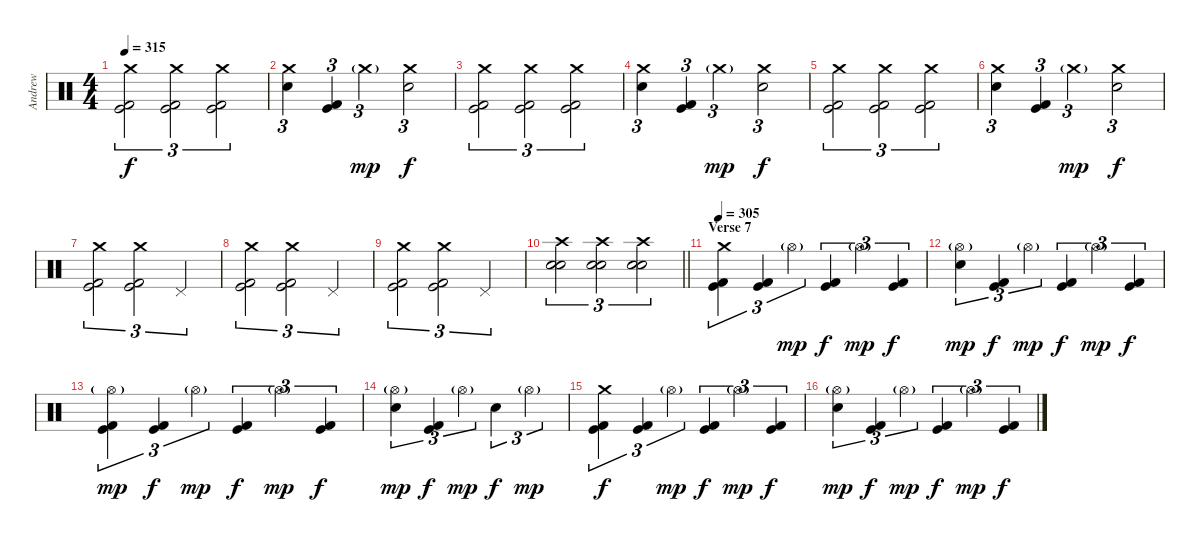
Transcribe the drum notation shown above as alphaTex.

\track ("Andrew" "Andrew") {instrument percussion}
\staff {score}
\articulation defaults
\ts (4 4)
\tempo 315
\clef neutral
\ks c
("Crash medium (hit)" "Kick (hit)" "Kick (hit) 2").2{tu (3 2) dy f} ("Crash medium (hit)" "Kick (hit)" "Kick (hit) 2").2{tu (3 2)} ("Crash medium (hit)" "Kick (hit)" "Kick (hit) 2").2{tu (3 2)} |
("Crash medium (hit)" "Snare (hit) 2").4{tu (3 2)} ("Kick (hit)" "Kick (hit) 2").4{tu (3 2)} "Crash medium (hit)"{g}.2{tu (3 2) dy mp} ("Crash medium (hit)" "Snare (hit) 2").2{tu (3 2) dy f} |
("Crash medium (hit)" "Kick (hit)" "Kick (hit) 2").2{tu (3 2)} ("Crash medium (hit)" "Kick (hit)" "Kick (hit) 2").2{tu (3 2)} ("Crash medium (hit)" "Kick (hit)" "Kick (hit) 2").2{tu (3 2)} |
("Crash medium (hit)" "Snare (hit) 2").4{tu (3 2)} ("Kick (hit)" "Kick (hit) 2").4{tu (3 2)} "Crash medium (hit)"{g}.2{tu (3 2) dy mp} ("Crash medium (hit)" "Snare (hit) 2").2{tu (3 2) dy f} |
("Crash medium (hit)" "Kick (hit)" "Kick (hit) 2").2{tu (3 2)} ("Crash medium (hit)" "Kick (hit)" "Kick (hit) 2").2{tu (3 2)} ("Crash medium (hit)" "Kick (hit)" "Kick (hit) 2").2{tu (3 2)} |
("Crash medium (hit)" "Snare (hit) 2").4{tu (3 2)} ("Kick (hit)" "Kick (hit) 2").4{tu (3 2)} "Crash medium (hit)"{g}.2{tu (3 2) dy mp} ("Crash medium (hit)" "Snare (hit) 2").2{tu (3 2) dy f} |
("Crash medium (hit)" "Kick (hit)" "Kick (hit) 2").2{tu (3 2)} ("Crash medium (hit)" "Kick (hit)" "Kick (hit) 2").2{tu (3 2)} "Pedal Hi-Hat (hit)".2{tu (3 2)} |
("Crash medium (hit)" "Kick (hit)" "Kick (hit) 2").2{tu (3 2)} ("Crash medium (hit)" "Kick (hit)" "Kick (hit) 2").2{tu (3 2)} "Pedal Hi-Hat (hit)".2{tu (3 2)} |
("Crash medium (hit)" "Kick (hit)" "Kick (hit) 2").2{tu (3 2)} ("Crash medium (hit)" "Kick (hit)" "Kick (hit) 2").2{tu (3 2)} "Pedal Hi-Hat (hit)".2{tu (3 2)} |
\barLineRight lightlight
("Crash high (hit)" "Snare (hit) 2" "Snare (hit) 2").2{tu (3 2)} ("Crash high (hit)" "Snare (hit) 2" "Snare (hit) 2").2{tu (3 2)} ("Crash high (hit)" "Snare (hit) 2" "Snare (hit) 2").2{tu (3 2)} |
\section ("" "Verse 7")
\tempo 305
("Crash medium (hit)" "Kick (hit)" "Kick (hit) 2").4{tu (3 2)} ("Kick (hit)" "Kick (hit) 2").4{tu (3 2)} "Hi-Hat (open)"{g}.4{tu (3 2) dy mp} ("Kick (hit)" "Kick (hit) 2").4{tu (3 2) dy f} "Hi-Hat (open)"{g}.4{tu (3 2) dy mp} ("Kick (hit)" "Kick (hit) 2").4{tu (3 2) dy f} |
("Hi-Hat (open)"{g} "Snare (hit) 2").4{tu (3 2) dy mp} ("Kick (hit)" "Kick (hit) 2").4{tu (3 2) dy f} "Hi-Hat (open)"{g}.4{tu (3 2) dy mp} ("Kick (hit)" "Kick (hit) 2").4{tu (3 2) dy f} "Hi-Hat (open)"{g}.4{tu (3 2) dy mp} ("Kick (hit)" "Kick (hit) 2").4{tu (3 2) dy f} |
("Hi-Hat (open)"{g} "Kick (hit)" "Kick (hit) 2").4{tu (3 2) dy mp} ("Kick (hit)" "Kick (hit) 2").4{tu (3 2) dy f} "Hi-Hat (open)"{g}.4{tu (3 2) dy mp} ("Kick (hit)" "Kick (hit) 2").4{tu (3 2) dy f} "Hi-Hat (open)"{g}.4{tu (3 2) dy mp} ("Kick (hit)" "Kick (hit) 2").4{tu (3 2) dy f} |
("Hi-Hat (open)"{g} "Snare (hit) 2").4{tu (3 2) dy mp} ("Kick (hit)" "Kick (hit) 2").4{tu (3 2) dy f} "Hi-Hat (open)"{g}.4{tu (3 2) dy mp} "Snare (hit) 2".4{tu (3 2) dy f} "Hi-Hat (open)"{g}.2{tu (3 2) dy mp} |
("Crash medium (hit)" "Kick (hit)" "Kick (hit) 2").4{tu (3 2) dy f} ("Kick (hit)" "Kick (hit) 2").4{tu (3 2)} "Hi-Hat (open)"{g}.4{tu (3 2) dy mp} ("Kick (hit)" "Kick (hit) 2").4{tu (3 2) dy f} "Hi-Hat (open)"{g}.4{tu (3 2) dy mp} ("Kick (hit)" "Kick (hit) 2").4{tu (3 2) dy f} |
("Hi-Hat (open)"{g} "Snare (hit) 2").4{tu (3 2) dy mp} ("Kick (hit)" "Kick (hit) 2").4{tu (3 2) dy f} "Hi-Hat (open)"{g}.4{tu (3 2) dy mp} ("Kick (hit)" "Kick (hit) 2").4{tu (3 2) dy f} "Hi-Hat (open)"{g}.4{tu (3 2) dy mp} ("Kick (hit)" "Kick (hit) 2").4{tu (3 2) dy f}
